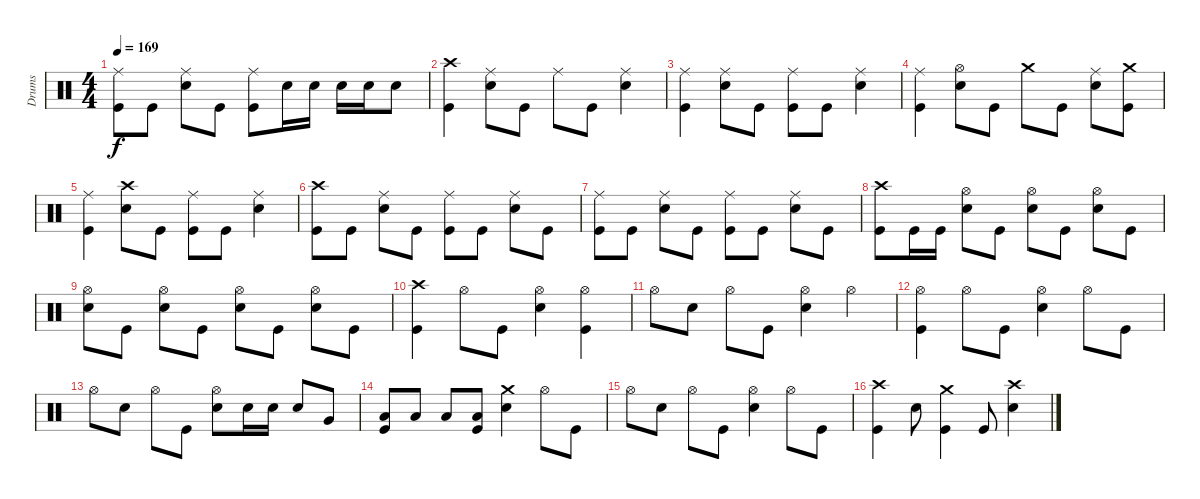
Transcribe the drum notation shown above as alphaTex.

\track ("Drums" "Drums") {instrument percussion}
\staff {score}
\articulation defaults
\ts (4 4)
\tempo 169
\clef neutral
\ks c
("Ride (middle)" "Kick (hit)").8{dy f} "Kick (hit)".8 ("Ride (middle)" "Snare (hit) 2").8 "Kick (hit)".8 ("Ride (middle)" "Kick (hit)").8 "Snare (hit) 2".16 "Snare (hit) 2".16 "Snare (hit) 2".16 "Snare (hit) 2".16 "Snare (hit) 2".8 |
("Crash high (hit)" "Kick (hit)").4 ("Ride (middle)" "Snare (hit) 2").8 "Kick (hit)".8 "Ride (middle)".8 "Kick (hit)".8 ("Ride (middle)" "Snare (hit) 2").4 |
("Ride (middle)" "Kick (hit)").4 ("Ride (middle)" "Snare (hit) 2").8 "Kick (hit)".8 ("Ride (middle)" "Kick (hit)").8 "Kick (hit)".8 ("Ride (middle)" "Snare (hit) 2").4 |
("Ride (middle)" "Kick (hit)").4 ("Hi-Hat (open)" "Snare (hit) 2").8 "Kick (hit)".8 "Crash medium (hit)".8 "Kick (hit)".8 ("Ride (middle)" "Snare (hit) 2").8 ("Crash medium (hit)" "Kick (hit)").8 |
("Ride (middle)" "Kick (hit)").4 ("Crash high (hit)" "Snare (hit) 2").8 "Kick (hit)".8 ("Ride (middle)" "Kick (hit)").8 "Kick (hit)".8 ("Ride (middle)" "Snare (hit) 2").4 |
("Crash high (hit)" "Kick (hit)").8 "Kick (hit)".8 ("Ride (middle)" "Snare (hit) 2").8 "Kick (hit)".8 ("Ride (middle)" "Kick (hit)").8 "Kick (hit)".8 ("Ride (middle)" "Snare (hit) 2").8 "Kick (hit)".8 |
("Ride (middle)" "Kick (hit)").8 "Kick (hit)".8 ("Ride (middle)" "Snare (hit) 2").8 "Kick (hit)".8 ("Ride (middle)" "Kick (hit)").8 "Kick (hit)".8 ("Ride (middle)" "Snare (hit) 2").8 "Kick (hit)".8 |
("Crash high (hit)" "Kick (hit)").8 "Kick (hit)".16 "Kick (hit)".16 ("Hi-Hat (open)" "Snare (hit) 2").8 "Kick (hit)".8 ("Hi-Hat (open)" "Snare (hit) 2").8 "Kick (hit)".8 ("Hi-Hat (open)" "Snare (hit) 2").8 "Kick (hit)".8 |
("Hi-Hat (open)" "Snare (hit) 2").8 "Kick (hit)".8 ("Hi-Hat (open)" "Snare (hit) 2").8 "Kick (hit)".8 ("Hi-Hat (open)" "Snare (hit) 2").8 "Kick (hit)".8 ("Hi-Hat (open)" "Snare (hit) 2").8 "Kick (hit)".8 |
("Crash high (hit)" "Kick (hit)").4 "Hi-Hat (open)".8 "Kick (hit)".8 ("Hi-Hat (open)" "Snare (hit) 2").4 ("Hi-Hat (open)" "Kick (hit)").4 |
"Hi-Hat (open)".8 "Snare (hit) 2".8 "Hi-Hat (open)".8 "Kick (hit)".8 ("Hi-Hat (open)" "Snare (hit) 2").4 "Hi-Hat (open)".4 |
("Hi-Hat (open)" "Kick (hit)").4 "Hi-Hat (open)".8 "Kick (hit)".8 ("Hi-Hat (open)" "Snare (hit) 2").4 "Hi-Hat (open)".8 "Kick (hit)".8 |
"Hi-Hat (open)".8 "Snare (hit) 2".8 "Hi-Hat (open)".8 "Kick (hit)".8 ("Hi-Hat (open)" "Snare (hit) 2").8 "Snare (hit) 2".16 "Snare (hit) 2".16 "Snare (hit) 2".8 "Very Low Tom (hit)".8 |
("Low Floor Tom (hit)" "Kick (hit)").8 "Low Floor Tom (hit)".8 "Low Floor Tom (hit)".8 ("Low Floor Tom (hit)" "Kick (hit)").8 ("Crash medium (hit)" "Snare (hit) 2").4 "Hi-Hat (open)".8 "Kick (hit)".8 |
"Hi-Hat (open)".8 "Snare (hit) 2".8 "Hi-Hat (open)".8 "Kick (hit)".8 ("Hi-Hat (open)" "Snare (hit) 2").4 "Hi-Hat (open)".8 "Kick (hit)".8 |
("Crash high (hit)" "Kick (hit)").4 "Snare (hit) 2".8 ("Crash medium (hit)" "Kick (hit)").4 "Kick (hit)".8 ("Crash high (hit)" "Snare (hit) 2").4
